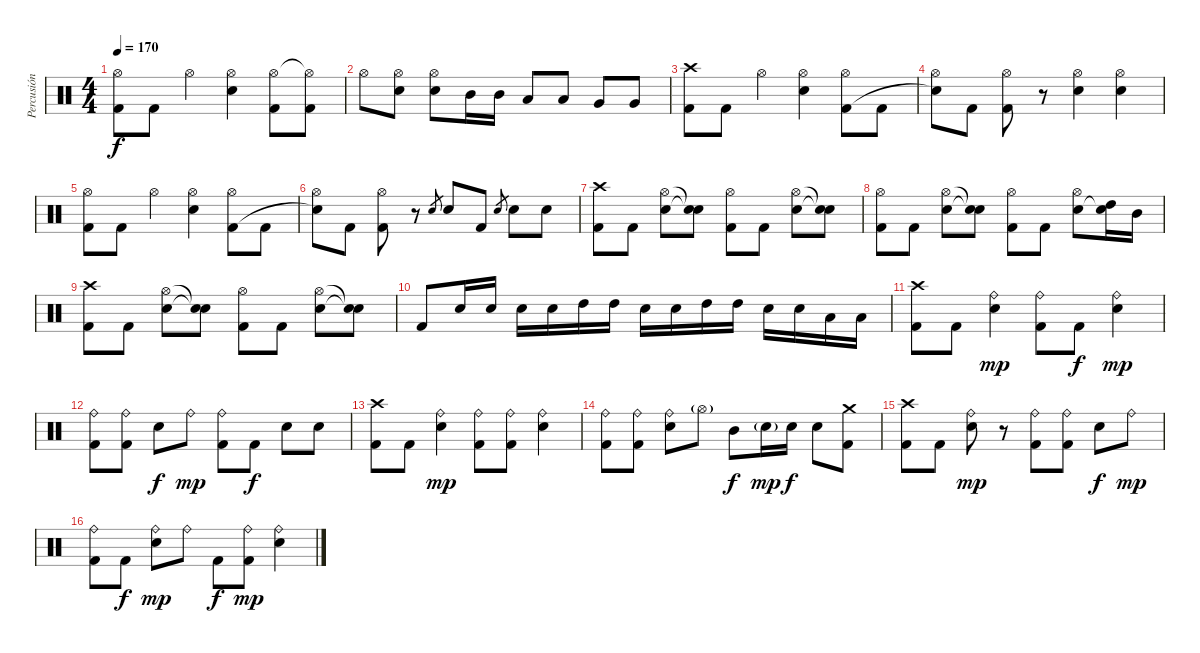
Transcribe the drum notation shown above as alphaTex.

\track ("Percusión" "Percusión") {instrument percussion}
\staff {score}
\articulation defaults
\ts (4 4)
\tempo 170
\clef neutral
\ks c
("Hi-Hat (open)" "Kick (hit) 2").8{dy f} "Kick (hit) 2".8 "Hi-Hat (open)".4 ("Hi-Hat (open)" "Snare (hit) 2").4 ("Hi-Hat (open)" "Kick (hit) 2").8 ("Hi-Hat (open)"{t} "Kick (hit) 2").8 |
"Hi-Hat (open)".8 ("Hi-Hat (open)" "Snare (hit) 2").8 ("Hi-Hat (open)" "Snare (hit) 2").8 "Mid Tom (hit)".16 "Mid Tom (hit)".16 "Low Tom (hit)".8 "Low Tom (hit)".8 "Very Low Tom (hit)".8 "Very Low Tom (hit)".8 |
("Crash high (hit)" "Kick (hit) 2").8 "Kick (hit) 2".8 "Hi-Hat (open)".4 ("Hi-Hat (open)" "Snare (hit) 2").4 ("Hi-Hat (open)" "Kick (hit) 2").8 "Kick (hit) 2".8 |
("Hi-Hat (open)" "Snare (hit)"{t}).8 "Kick (hit) 2".8 ("Hi-Hat (open)" "Kick (hit) 2").8 r.8 ("Hi-Hat (open)" "Snare (hit) 2").4 ("Hi-Hat (open)" "Snare (hit) 2").4 |
("Hi-Hat (open)" "Kick (hit) 2").8 "Kick (hit) 2".8 "Hi-Hat (open)".4 ("Hi-Hat (open)" "Snare (hit) 2").4 ("Hi-Hat (open)" "Kick (hit) 2").8 "Kick (hit) 2".8 |
("Hi-Hat (open)" "Snare (hit)"{t}).8 "Kick (hit) 2".8 ("Hi-Hat (open)" "Kick (hit) 2").8 r.8 "Electric Snare (hit)".8{gr} "Electric Snare (hit)".8 "Kick (hit) 2".8 "Electric Snare (hit)".8{gr} "Electric Snare (hit)".8 "Electric Snare (hit)".8 |
("Crash high (hit)" "Kick (hit) 2").8 "Kick (hit) 2".8 ("Hi-Hat (open)" "Snare (hit) 2").8 ("Snare (hit)"{t} "Snare (hit)"{t}).8 ("Hi-Hat (open)" "Kick (hit) 2").8 "Kick (hit) 2".8 ("Hi-Hat (open)" "Snare (hit) 2").8 ("Snare (hit)"{t} "Snare (hit)"{t}).8 |
("Hi-Hat (open)" "Kick (hit) 2").8 "Kick (hit) 2".8 ("Hi-Hat (open)" "Snare (hit) 2").8 ("Snare (hit)"{t} "Snare (hit)"{t}).8 ("Hi-Hat (open)" "Kick (hit) 2").8 "Kick (hit) 2".8 ("Hi-Hat (open)" "Snare (hit) 2").8 ("High Tom (hit)" "Snare (hit)"{t}).16 "Mid Tom (hit)".16 |
("Crash high (hit)" "Kick (hit) 2").8 "Kick (hit) 2".8 ("Hi-Hat (open)" "Snare (hit) 2").8 ("Snare (hit)"{t} "Snare (hit)"{t}).8 ("Hi-Hat (open)" "Kick (hit) 2").8 "Kick (hit) 2".8 ("Hi-Hat (open)" "Snare (hit) 2").8 ("Snare (hit)"{t} "Snare (hit)"{t}).8 |
"Kick (hit) 2".8 "Snare (hit) 2".16 "Snare (hit) 2".16 "Snare (hit) 2".16 "Snare (hit) 2".16 "High Tom (hit)".16 "High Tom (hit)".16 "Snare (hit) 2".16 "Snare (hit) 2".16 "High Tom (hit)".16 "High Tom (hit)".16 "Snare (hit) 2".16 "Snare (hit) 2".16 "Low Tom (hit)".16 "Low Tom (hit)".16 |
("Crash high (hit)" "Kick (hit) 2").8 "Kick (hit) 2".8 ("Ride (bell)" "Snare (hit) 2").4{dy mp} ("Ride (bell)" "Kick (hit) 2").8 "Kick (hit) 2".8{dy f} ("Ride (bell)" "Snare (hit) 2").4{dy mp} |
("Ride (bell)" "Kick (hit) 2").8 ("Ride (bell)" "Kick (hit) 2").8 "Snare (hit) 2".8{dy f} "Ride (bell)".8{dy mp} ("Ride (bell)" "Kick (hit) 2").8 "Kick (hit) 2".8{dy f} "Snare (hit) 2".8 "Snare (hit) 2".8 |
("Crash high (hit)" "Kick (hit) 2").8 "Kick (hit) 2".8 ("Ride (bell)" "Snare (hit) 2").4{dy mp} ("Ride (bell)" "Kick (hit) 2").8 ("Ride (bell)" "Kick (hit) 2").8 ("Ride (bell)" "Snare (hit) 2").4 |
("Ride (bell)" "Kick (hit) 2").8 ("Ride (bell)" "Kick (hit) 2").8 ("Ride (bell)" "Snare (hit) 2").8 "Hi-Hat (open)"{g}.8 "Mid Tom (hit)".8{dy f} "Snare (hit) 2"{g}.16{dy mp} "Snare (hit) 2".16{dy f} "Snare (hit) 2".8 ("Crash medium (hit)" "Kick (hit) 2").8 |
("Crash high (hit)" "Kick (hit) 2").8 "Kick (hit) 2".8 ("Ride (bell)" "Snare (hit) 2").8{dy mp} r.8 ("Ride (bell)" "Kick (hit) 2").8 ("Ride (bell)" "Kick (hit) 2").8 "Snare (hit) 2".8{dy f} "Ride (bell)".8{dy mp} |
("Ride (bell)" "Kick (hit) 2").8 "Kick (hit) 2".8{dy f} ("Ride (bell)" "Snare (hit) 2").8{dy mp} "Ride (bell)".8 "Kick (hit) 2".8{dy f} ("Ride (bell)" "Kick (hit) 2").8{dy mp} ("Ride (bell)" "Snare (hit) 2").4
